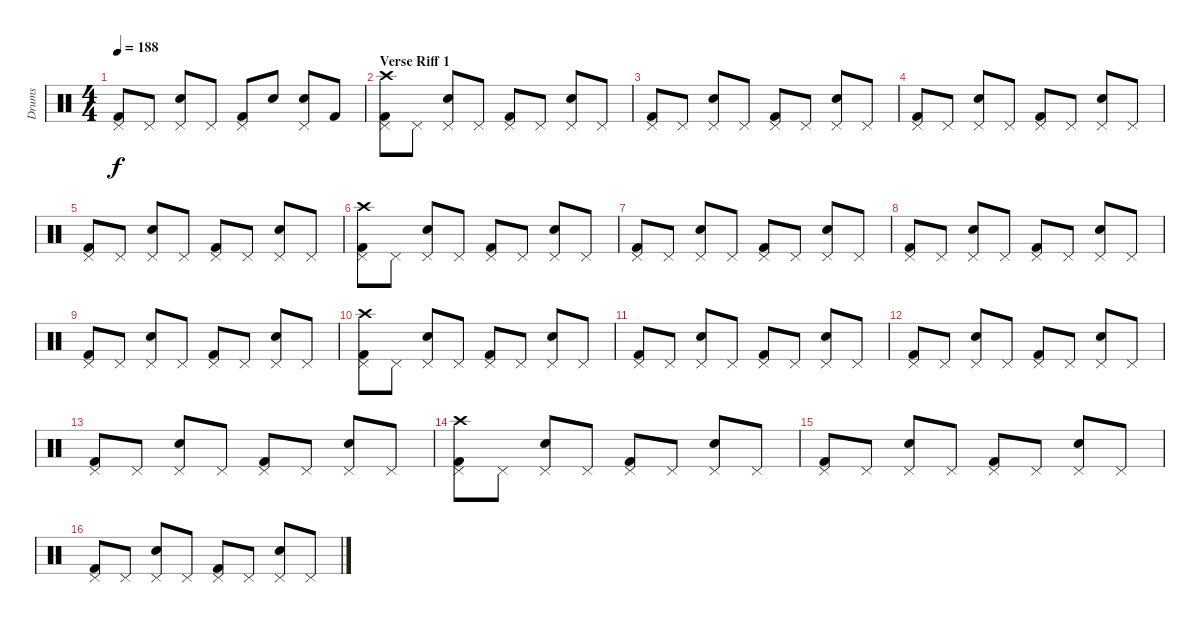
\track ("Drums" "Drums") {instrument percussion}
\staff {score}
\articulation defaults
\ts (4 4)
\tempo 188
\clef neutral
\ks c
("Kick (hit) 2" "Pedal Hi-Hat (hit)").8{dy f} "Pedal Hi-Hat (hit)".8 ("Snare (hit) 2" "Pedal Hi-Hat (hit)").8 "Pedal Hi-Hat (hit)".8 ("Kick (hit) 2" "Pedal Hi-Hat (hit)").8 "Snare (hit) 2".8 ("Snare (hit) 2" "Pedal Hi-Hat (hit)").8 "Kick (hit) 2".8 |
\section ("" "Verse Riff 1")
("Kick (hit) 2" "Pedal Hi-Hat (hit)" "Crash high (hit)").8 "Pedal Hi-Hat (hit)".8 ("Snare (hit) 2" "Pedal Hi-Hat (hit)").8 "Pedal Hi-Hat (hit)".8 ("Kick (hit) 2" "Pedal Hi-Hat (hit)").8 "Pedal Hi-Hat (hit)".8 ("Snare (hit) 2" "Pedal Hi-Hat (hit)").8 "Pedal Hi-Hat (hit)".8 |
("Kick (hit) 2" "Pedal Hi-Hat (hit)").8 "Pedal Hi-Hat (hit)".8 ("Snare (hit) 2" "Pedal Hi-Hat (hit)").8 "Pedal Hi-Hat (hit)".8 ("Kick (hit) 2" "Pedal Hi-Hat (hit)").8 "Pedal Hi-Hat (hit)".8 ("Snare (hit) 2" "Pedal Hi-Hat (hit)").8 "Pedal Hi-Hat (hit)".8 |
("Kick (hit) 2" "Pedal Hi-Hat (hit)").8 "Pedal Hi-Hat (hit)".8 ("Snare (hit) 2" "Pedal Hi-Hat (hit)").8 "Pedal Hi-Hat (hit)".8 ("Kick (hit) 2" "Pedal Hi-Hat (hit)").8 "Pedal Hi-Hat (hit)".8 ("Snare (hit) 2" "Pedal Hi-Hat (hit)").8 "Pedal Hi-Hat (hit)".8 |
("Kick (hit) 2" "Pedal Hi-Hat (hit)").8 "Pedal Hi-Hat (hit)".8 ("Snare (hit) 2" "Pedal Hi-Hat (hit)").8 "Pedal Hi-Hat (hit)".8 ("Kick (hit) 2" "Pedal Hi-Hat (hit)").8 "Pedal Hi-Hat (hit)".8 ("Snare (hit) 2" "Pedal Hi-Hat (hit)").8 "Pedal Hi-Hat (hit)".8 |
("Kick (hit) 2" "Pedal Hi-Hat (hit)" "Crash high (hit)").8 "Pedal Hi-Hat (hit)".8 ("Snare (hit) 2" "Pedal Hi-Hat (hit)").8 "Pedal Hi-Hat (hit)".8 ("Kick (hit) 2" "Pedal Hi-Hat (hit)").8 "Pedal Hi-Hat (hit)".8 ("Snare (hit) 2" "Pedal Hi-Hat (hit)").8 "Pedal Hi-Hat (hit)".8 |
("Kick (hit) 2" "Pedal Hi-Hat (hit)").8 "Pedal Hi-Hat (hit)".8 ("Snare (hit) 2" "Pedal Hi-Hat (hit)").8 "Pedal Hi-Hat (hit)".8 ("Kick (hit) 2" "Pedal Hi-Hat (hit)").8 "Pedal Hi-Hat (hit)".8 ("Snare (hit) 2" "Pedal Hi-Hat (hit)").8 "Pedal Hi-Hat (hit)".8 |
("Kick (hit) 2" "Pedal Hi-Hat (hit)").8 "Pedal Hi-Hat (hit)".8 ("Snare (hit) 2" "Pedal Hi-Hat (hit)").8 "Pedal Hi-Hat (hit)".8 ("Kick (hit) 2" "Pedal Hi-Hat (hit)").8 "Pedal Hi-Hat (hit)".8 ("Snare (hit) 2" "Pedal Hi-Hat (hit)").8 "Pedal Hi-Hat (hit)".8 |
("Kick (hit) 2" "Pedal Hi-Hat (hit)").8 "Pedal Hi-Hat (hit)".8 ("Snare (hit) 2" "Pedal Hi-Hat (hit)").8 "Pedal Hi-Hat (hit)".8 ("Kick (hit) 2" "Pedal Hi-Hat (hit)").8 "Pedal Hi-Hat (hit)".8 ("Snare (hit) 2" "Pedal Hi-Hat (hit)").8 "Pedal Hi-Hat (hit)".8 |
("Kick (hit) 2" "Pedal Hi-Hat (hit)" "Crash high (hit)").8 "Pedal Hi-Hat (hit)".8 ("Snare (hit) 2" "Pedal Hi-Hat (hit)").8 "Pedal Hi-Hat (hit)".8 ("Kick (hit) 2" "Pedal Hi-Hat (hit)").8 "Pedal Hi-Hat (hit)".8 ("Snare (hit) 2" "Pedal Hi-Hat (hit)").8 "Pedal Hi-Hat (hit)".8 |
("Kick (hit) 2" "Pedal Hi-Hat (hit)").8 "Pedal Hi-Hat (hit)".8 ("Snare (hit) 2" "Pedal Hi-Hat (hit)").8 "Pedal Hi-Hat (hit)".8 ("Kick (hit) 2" "Pedal Hi-Hat (hit)").8 "Pedal Hi-Hat (hit)".8 ("Snare (hit) 2" "Pedal Hi-Hat (hit)").8 "Pedal Hi-Hat (hit)".8 |
("Kick (hit) 2" "Pedal Hi-Hat (hit)").8 "Pedal Hi-Hat (hit)".8 ("Snare (hit) 2" "Pedal Hi-Hat (hit)").8 "Pedal Hi-Hat (hit)".8 ("Kick (hit) 2" "Pedal Hi-Hat (hit)").8 "Pedal Hi-Hat (hit)".8 ("Snare (hit) 2" "Pedal Hi-Hat (hit)").8 "Pedal Hi-Hat (hit)".8 |
("Kick (hit) 2" "Pedal Hi-Hat (hit)").8 "Pedal Hi-Hat (hit)".8 ("Snare (hit) 2" "Pedal Hi-Hat (hit)").8 "Pedal Hi-Hat (hit)".8 ("Kick (hit) 2" "Pedal Hi-Hat (hit)").8 "Pedal Hi-Hat (hit)".8 ("Snare (hit) 2" "Pedal Hi-Hat (hit)").8 "Pedal Hi-Hat (hit)".8 |
("Kick (hit) 2" "Pedal Hi-Hat (hit)" "Crash high (hit)").8 "Pedal Hi-Hat (hit)".8 ("Snare (hit) 2" "Pedal Hi-Hat (hit)").8 "Pedal Hi-Hat (hit)".8 ("Kick (hit) 2" "Pedal Hi-Hat (hit)").8 "Pedal Hi-Hat (hit)".8 ("Snare (hit) 2" "Pedal Hi-Hat (hit)").8 "Pedal Hi-Hat (hit)".8 |
("Kick (hit) 2" "Pedal Hi-Hat (hit)").8 "Pedal Hi-Hat (hit)".8 ("Snare (hit) 2" "Pedal Hi-Hat (hit)").8 "Pedal Hi-Hat (hit)".8 ("Kick (hit) 2" "Pedal Hi-Hat (hit)").8 "Pedal Hi-Hat (hit)".8 ("Snare (hit) 2" "Pedal Hi-Hat (hit)").8 "Pedal Hi-Hat (hit)".8 |
("Kick (hit) 2" "Pedal Hi-Hat (hit)").8 "Pedal Hi-Hat (hit)".8 ("Snare (hit) 2" "Pedal Hi-Hat (hit)").8 "Pedal Hi-Hat (hit)".8 ("Kick (hit) 2" "Pedal Hi-Hat (hit)").8 "Pedal Hi-Hat (hit)".8 ("Snare (hit) 2" "Pedal Hi-Hat (hit)").8 "Pedal Hi-Hat (hit)".8
